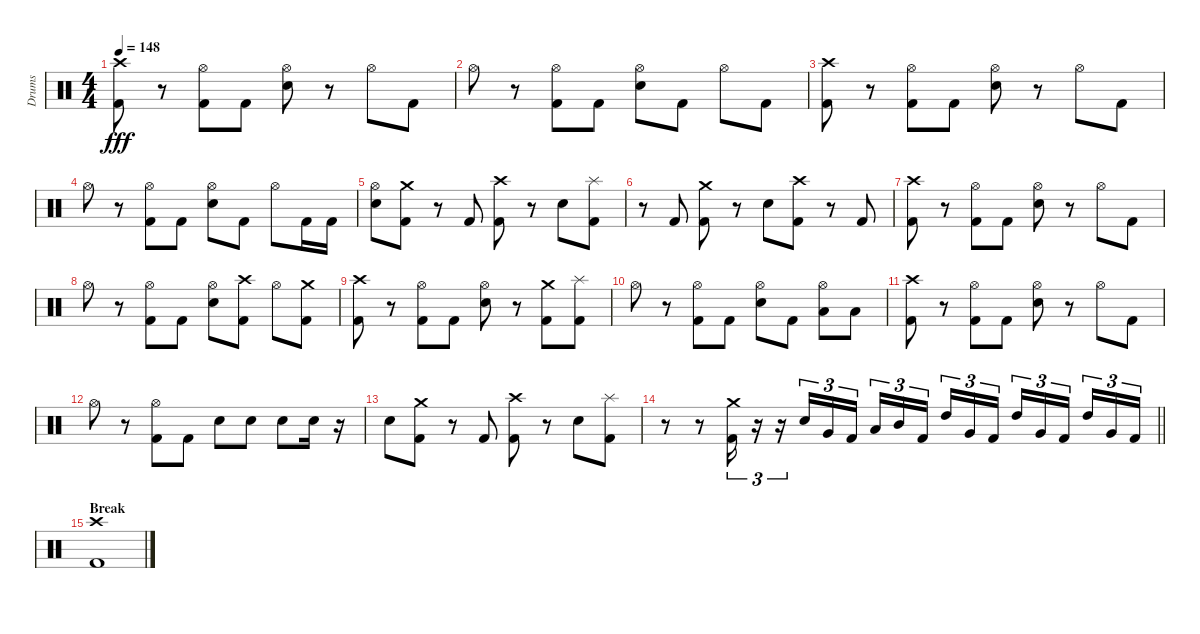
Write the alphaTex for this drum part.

\track ("Drums" "Drums") {instrument percussion}
\staff {score}
\articulation defaults
\ts (4 4)
\tempo 148
\clef neutral
\ks c
("Crash high (hit)" "Kick (hit) 2").8{dy fff} r.8 ("Hi-Hat (open)" "Kick (hit) 2").8 "Kick (hit) 2".8 ("Hi-Hat (open)" "Electric Snare (hit)").8 r.8 "Hi-Hat (open)".8 "Kick (hit) 2".8 |
"Hi-Hat (open)".8 r.8 ("Hi-Hat (open)" "Kick (hit) 2").8 "Kick (hit) 2".8 ("Hi-Hat (open)" "Electric Snare (hit)").8 "Kick (hit) 2".8 "Hi-Hat (open)".8 "Kick (hit) 2".8 |
("Crash high (hit)" "Kick (hit) 2").8 r.8 ("Hi-Hat (open)" "Kick (hit) 2").8 "Kick (hit) 2".8 ("Hi-Hat (open)" "Electric Snare (hit)").8 r.8 "Hi-Hat (open)".8 "Kick (hit) 2".8 |
"Hi-Hat (open)".8 r.8 ("Hi-Hat (open)" "Kick (hit) 2").8 "Kick (hit) 2".8 ("Hi-Hat (open)" "Electric Snare (hit)").8 "Kick (hit) 2".8 "Hi-Hat (open)".8 "Kick (hit) 2".16 "Kick (hit) 2".16 |
("Hi-Hat (open)" "Electric Snare (hit)").8 ("Crash medium (hit)" "Kick (hit) 2").8 r.8 "Kick (hit) 2".8 ("Crash high (hit)" "Kick (hit) 2").8 r.8 "Electric Snare (hit)".8 ("Splash (hit)" "Kick (hit) 2").8 |
r.8 "Kick (hit) 2".8 ("Crash medium (hit)" "Kick (hit) 2").8 r.8 "Electric Snare (hit)".8 ("Crash high (hit)" "Kick (hit) 2").8 r.8 "Kick (hit) 2".8 |
("Crash high (hit)" "Kick (hit) 2").8 r.8 ("Hi-Hat (open)" "Kick (hit) 2").8 "Kick (hit) 2".8 ("Hi-Hat (open)" "Electric Snare (hit)").8 r.8 "Hi-Hat (open)".8 "Kick (hit) 2".8 |
"Hi-Hat (open)".8 r.8 ("Hi-Hat (open)" "Kick (hit) 2").8 "Kick (hit) 2".8 ("Hi-Hat (open)" "Electric Snare (hit)").8 ("Crash high (hit)" "Kick (hit) 2").8 "Hi-Hat (open)".8 ("Crash medium (hit)" "Kick (hit) 2").8 |
("Crash high (hit)" "Kick (hit) 2").8 r.8 ("Hi-Hat (open)" "Kick (hit) 2").8 "Kick (hit) 2".8 ("Hi-Hat (open)" "Electric Snare (hit)").8 r.8 ("Crash medium (hit)" "Kick (hit) 2").8 ("Splash (hit)" "Kick (hit) 2").8 |
"Hi-Hat (open)".8 r.8 ("Hi-Hat (open)" "Kick (hit) 2").8 "Kick (hit) 2".8 ("Hi-Hat (open)" "Electric Snare (hit)").8 "Kick (hit) 2".8 ("Hi-Hat (open)" "Low Tom (hit)").8 "Low Tom (hit)".8 |
("Crash high (hit)" "Kick (hit) 2").8 r.8 ("Hi-Hat (open)" "Kick (hit) 2").8 "Kick (hit) 2".8 ("Hi-Hat (open)" "Electric Snare (hit)").8 r.8 "Hi-Hat (open)".8 "Kick (hit) 2".8 |
"Hi-Hat (open)".8 r.8 ("Hi-Hat (open)" "Kick (hit) 2").8 "Kick (hit) 2".8 "Electric Snare (hit)".8 "Electric Snare (hit)".8 "Electric Snare (hit)".8 "Electric Snare (hit)".16 r.16 |
"Electric Snare (hit)".8 ("Crash medium (hit)" "Kick (hit) 2").8 r.8 "Kick (hit) 2".8 ("Crash high (hit)" "Kick (hit) 2").8 r.8 "Electric Snare (hit)".8 ("Splash (hit)" "Kick (hit) 2").8 |
\barLineRight lightlight
r.8 r.8 ("Crash medium (hit)" "Kick (hit) 2").16{tu (3 2)} r.16{tu (3 2)} r.16{tu (3 2)} "Electric Snare (hit)".16{tu (3 2)} "Very Low Tom (hit)".16{tu (3 2)} "Kick (hit) 2".16{tu (3 2)} "Low Floor Tom (hit)".16{tu (3 2)} "Mid Tom (hit)".16{tu (3 2)} "Kick (hit) 2".16{tu (3 2) beam splitsecondary} "High Tom (hit)".16{tu (3 2)} "Very Low Tom (hit)".16{tu (3 2)} "Kick (hit) 2".16{tu (3 2)} "High Tom (hit)".16{tu (3 2)} "Very Low Tom (hit)".16{tu (3 2)} "Kick (hit) 2".16{tu (3 2) beam splitsecondary} "High Tom (hit)".16{tu (3 2)} "Very Low Tom (hit)".16{tu (3 2)} "Kick (hit) 2".16{tu (3 2)} |
\section ("" "Break")
("Crash high (hit)" "Kick (hit) 2").1
